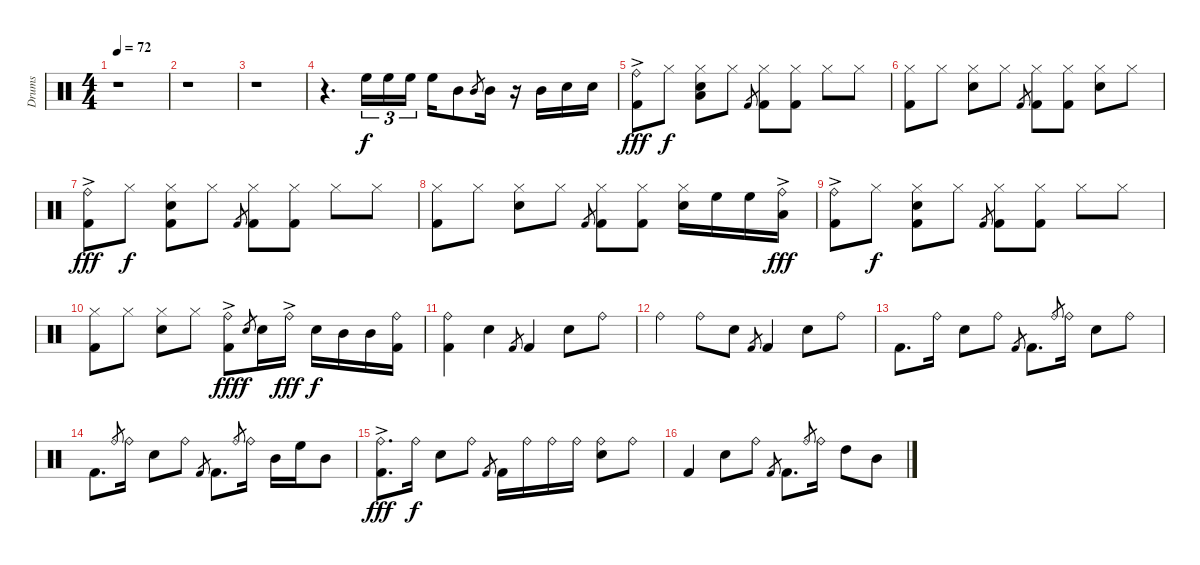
\track ("Drums" "Drums") {instrument percussion}
\staff {score}
\articulation defaults
\ts (4 4)
\tempo 72
\clef neutral
\ks c
r.1{dy f} |
r.1 |
r.1 |
r.4{d} "High Floor Tom (hit)".16{tu (3 2)} "High Floor Tom (hit)".16{tu (3 2)} "High Floor Tom (hit)".16{tu (3 2)} "High Floor Tom (hit)".16 "Mid Tom (hit)".8 "Mid Tom (hit)".8{gr} "Mid Tom (hit)".16 r.16 "Mid Tom (hit)".16 "Snare (hit) 2".16 "Snare (hit) 2".16 |
("Kick (hit) 2" "Ride (bell)"{ac}).8{dy fff} "Hi-Hat (closed)".8{dy f} ("Snare (hit) 2" "Low Floor Tom (hit)" "Hi-Hat (closed)").8 "Hi-Hat (closed)".8 "Kick (hit) 2".8{gr} ("Kick (hit) 2" "Hi-Hat (closed)").8 ("Kick (hit) 2" "Hi-Hat (closed)").8 "Hi-Hat (closed)".8 "Hi-Hat (closed)".8 |
("Kick (hit) 2" "Hi-Hat (closed)").8 "Hi-Hat (closed)".8 ("Snare (hit) 2" "Hi-Hat (closed)").8 "Hi-Hat (closed)".8 "Kick (hit) 2".8{gr} ("Kick (hit) 2" "Hi-Hat (closed)").8 ("Kick (hit) 2" "Hi-Hat (closed)").8 ("Snare (hit) 2" "Hi-Hat (closed)").8 "Hi-Hat (closed)".8 |
("Kick (hit) 2" "Ride (bell)"{ac}).8{dy fff} "Hi-Hat (closed)".8{dy f} ("Kick (hit) 2" "Snare (hit) 2" "Hi-Hat (closed)").8 "Hi-Hat (closed)".8 "Kick (hit) 2".8{gr} ("Kick (hit) 2" "Hi-Hat (closed)").8 ("Kick (hit) 2" "Hi-Hat (closed)").8 "Hi-Hat (closed)".8 "Hi-Hat (closed)".8 |
("Kick (hit) 2" "Hi-Hat (closed)").8 "Hi-Hat (closed)".8 ("Snare (hit) 2" "Hi-Hat (closed)").8 "Hi-Hat (closed)".8 "Kick (hit) 2".8{gr} ("Kick (hit) 2" "Hi-Hat (closed)").8 ("Kick (hit) 2" "Hi-Hat (closed)").8 ("Snare (hit) 2" "Hi-Hat (closed)").16 "High Floor Tom (hit)".16 "High Floor Tom (hit)".16 ("Low Floor Tom (hit)" "Ride (bell)"{ac}).16{dy fff} |
("Kick (hit) 2" "Ride (bell)"{ac}).8 "Hi-Hat (closed)".8{dy f} ("Kick (hit) 2" "Snare (hit) 2" "Hi-Hat (closed)").8 "Hi-Hat (closed)".8 "Kick (hit) 2".8{gr} ("Kick (hit) 2" "Hi-Hat (closed)").8 ("Kick (hit) 2" "Hi-Hat (closed)").8 "Hi-Hat (closed)".8 "Hi-Hat (closed)".8 |
("Kick (hit) 2" "Hi-Hat (closed)").8 "Hi-Hat (closed)".8 ("Snare (hit) 2" "Hi-Hat (closed)").8 "Hi-Hat (closed)".8 ("Kick (hit) 2" "Ride (bell)"{ac}).8{dy fff} "Snare (hit) 2".8{gr dy f} "Snare (hit) 2".16 "Ride (bell)"{ac}.16{dy fff} "Snare (hit) 2".16{dy f} "Mid Tom (hit)".16 "Mid Tom (hit)".16 ("Kick (hit) 2" "Ride (bell)").16 |
("Kick (hit) 2" "Ride (bell)").4 "Snare (hit) 2".4 "Kick (hit) 2".8{gr} "Kick (hit) 2".4 "Snare (hit) 2".8 "Ride (bell)".8 |
"Ride (bell)".4 "Ride (bell)".8 "Snare (hit) 2".8 "Kick (hit) 2".8{gr} "Kick (hit) 2".4 "Snare (hit) 2".8 "Ride (bell)".8 |
"Kick (hit) 2".8{d} "Ride (bell)".16 "Snare (hit) 2".8 "Ride (bell)".8 "Kick (hit) 2".8{gr} "Kick (hit) 2".8{d} "Ride (bell)".8{gr} "Ride (bell)".16 "Snare (hit) 2".8 "Ride (bell)".8 |
"Kick (hit) 2".8{d} "Ride (bell)".8{gr} "Ride (bell)".16 "Snare (hit) 2".8 "Ride (bell)".8 "Kick (hit) 2".8{gr} "Kick (hit) 2".8{d} "Ride (bell)".8{gr} "Ride (bell)".16 "Mid Tom (hit)".16 "High Floor Tom (hit)".16 "Mid Tom (hit)".8 |
("Kick (hit) 2" "Ride (bell)"{ac}).8{d dy fff} "Ride (bell)".16{dy f} "Snare (hit) 2".8 "Ride (bell)".8 "Kick (hit) 2".8{gr} "Kick (hit) 2".16 "Ride (bell)".16 "Ride (bell)".16 "Ride (bell)".16 ("Snare (hit) 2" "Ride (bell)").8 "Ride (bell)".8 |
"Kick (hit) 2".4 "Snare (hit) 2".8 "Ride (bell)".8 "Kick (hit) 2".8{gr} "Kick (hit) 2".8{d} "Ride (bell)".8{gr} "Ride (bell)".16 "High Tom (hit)".8 "Mid Tom (hit)".8
